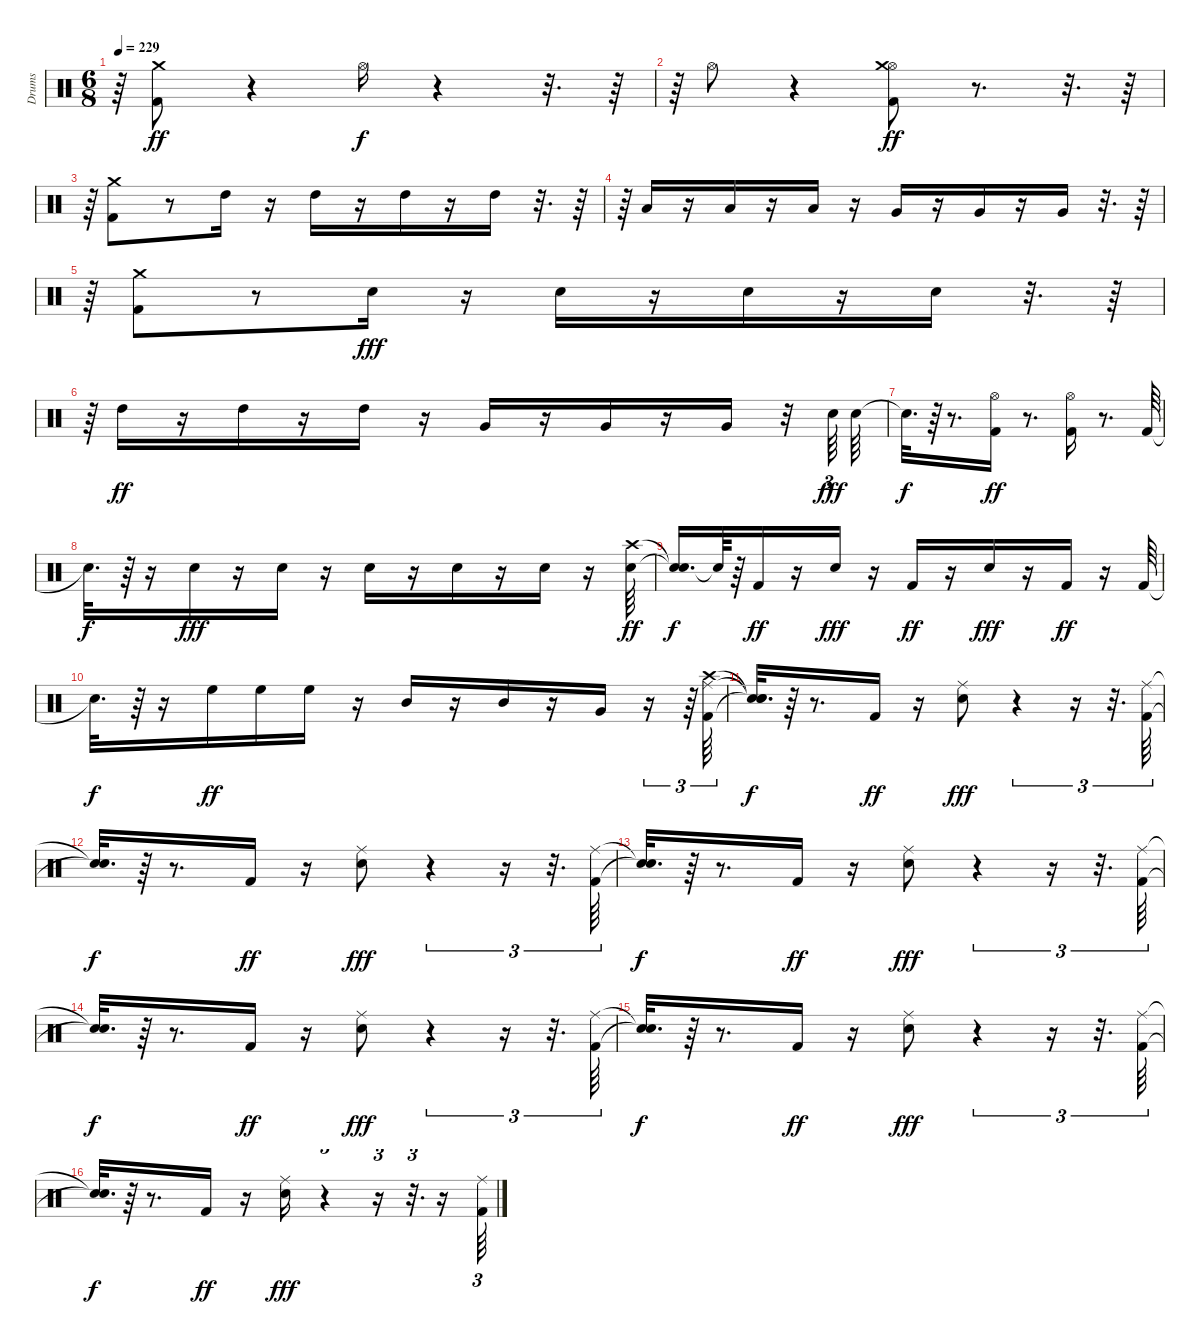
\track ("Drums" "Drums") {instrument percussion}
\staff {score}
\articulation defaults
\ts (6 8)
\tempo 229
\clef neutral
\ks c
r.64{dy ff} ("Kick (hit) 2" "Crash medium (hit)").8{volume 16} r.4 "Hi-Hat (open)".16{dy f} r.4 r.32{d} r.64 |
r.64 "Hi-Hat (open)".8 r.4 ("Kick (hit) 2" "Hi-Hat (open)" "Crash medium (hit)").8{dy ff} r.8{d} r.32{d} r.64 |
r.64 ("Kick (hit) 2" "Crash medium (hit)").8 r.8 "High Tom (hit)".16 r.16 "High Tom (hit)".16 r.16 "High Tom (hit)".16 r.16 "High Tom (hit)".16 r.32{d} r.64 |
r.64 "Low Tom (hit)".16 r.16 "Low Tom (hit)".16 r.16 "Low Tom (hit)".16 r.16 "Very Low Tom (hit)".16 r.16 "Very Low Tom (hit)".16 r.16 "Very Low Tom (hit)".16 r.32{d} r.64 |
r.64 ("Kick (hit) 2" "Crash medium (hit)").8 r.8 "Snare (hit) 2".16{dy fff} r.16 "Snare (hit) 2".16 r.16 "Snare (hit) 2".16 r.16 "Snare (hit) 2".16 r.32{d} r.64 |
r.64 "High Tom (hit)".16{dy ff} r.16 "High Tom (hit)".16 r.16 "High Tom (hit)".16 r.16 "Very Low Tom (hit)".16 r.16 "Very Low Tom (hit)".16 r.16 "Very Low Tom (hit)".16 r.32 "Snare (hit) 2".64{tu (3 2) dy fff} "Snare (hit) 2".64 |
"Snare (hit)"{t}.32{d dy f} r.64 r.8{d} ("Kick (hit) 2" "Hi-Hat (open)").16{dy ff} r.8{d} ("Kick (hit) 2" "Hi-Hat (open)").16 r.8{d} "Kick (hit) 2".64 |
"Snare (hit)"{t}.32{d dy f} r.64 r.16 "Snare (hit) 2".16{dy fff} r.16 "Snare (hit) 2".16 r.16 "Snare (hit) 2".16 r.16 "Snare (hit) 2".16 r.16 "Snare (hit) 2".16 r.16 ("Snare (hit) 2" "Crash high (hit)").64{dy ff} |
("Snare (hit)"{t} "Snare (hit)"{t}).16{d dy f} "Snare (hit)"{t}.64 r.64 "Kick (hit) 2".16{dy ff} r.16 "Snare (hit) 2".16{dy fff} r.16 "Kick (hit) 2".16{dy ff} r.16 "Snare (hit) 2".16{dy fff} r.16 "Kick (hit) 2".16{dy ff} r.16 "Kick (hit) 2".64 |
"Snare (hit)"{t}.32{d dy f} r.64 r.16 "High Floor Tom (hit)".16{dy ff} "High Floor Tom (hit)".16 "High Floor Tom (hit)".16 r.16 "Mid Tom (hit)".16 r.16 "Mid Tom (hit)".16 r.16 "Very Low Tom (hit)".16 r.16{tu (3 2)} r.64{tu (3 2)} ("Kick (hit) 2" "Ride (middle)" "Crash high (hit)").64{tu (3 2)} |
("Snare (hit)"{t} "Snare (hit)"{t} "Snare (hit)"{t}).32{d dy f} r.64 r.8{d} "Kick (hit) 2".16{dy ff} r.16 ("Snare (hit) 2" "Ride (middle)").8{dy fff} r.4{tu (3 2)} r.16{tu (3 2)} r.32{d tu (3 2)} ("Kick (hit) 2" "Ride (middle)").64{tu (3 2)} |
("Snare (hit)"{t} "Snare (hit)"{t}).32{d dy f} r.64 r.8{d} "Kick (hit) 2".16{dy ff} r.16 ("Snare (hit) 2" "Ride (middle)").8{dy fff} r.4{tu (3 2)} r.16{tu (3 2)} r.32{d tu (3 2)} ("Kick (hit) 2" "Ride (middle)").64{tu (3 2)} |
("Snare (hit)"{t} "Snare (hit)"{t}).32{d dy f} r.64 r.8{d} "Kick (hit) 2".16{dy ff} r.16 ("Snare (hit) 2" "Ride (middle)").8{dy fff} r.4{tu (3 2)} r.16{tu (3 2)} r.32{d tu (3 2)} ("Kick (hit) 2" "Ride (middle)").64{tu (3 2)} |
("Snare (hit)"{t} "Snare (hit)"{t}).32{d dy f} r.64 r.8{d} "Kick (hit) 2".16{dy ff} r.16 ("Snare (hit) 2" "Ride (middle)").8{dy fff} r.4{tu (3 2)} r.16{tu (3 2)} r.32{d tu (3 2)} ("Kick (hit) 2" "Ride (middle)").64{tu (3 2)} |
("Snare (hit)"{t} "Snare (hit)"{t}).32{d dy f} r.64 r.8{d} "Kick (hit) 2".16{dy ff} r.16 ("Snare (hit) 2" "Ride (middle)").8{dy fff} r.4{tu (3 2)} r.16{tu (3 2)} r.32{d tu (3 2)} ("Kick (hit) 2" "Ride (middle)").64{tu (3 2)} |
("Snare (hit)"{t} "Snare (hit)"{t}).32{d dy f} r.64 r.8{d} "Kick (hit) 2".16{dy ff} r.16 ("Snare (hit) 2" "Ride (middle)").16{dy fff} r.4{tu (3 2)} r.16{tu (3 2)} r.32{d tu (3 2)} r.16 ("Kick (hit) 2" "Ride (middle)").64{tu (3 2)}
